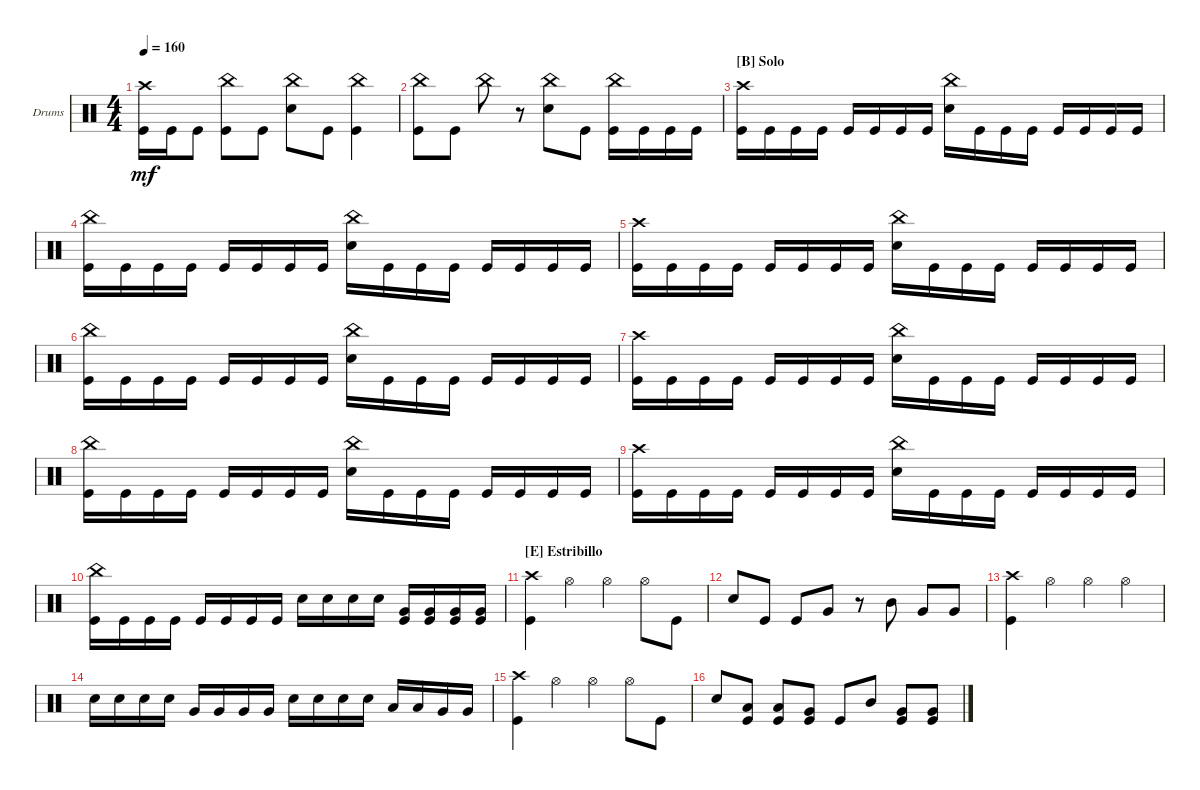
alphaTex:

\bracketExtendMode groupsimilarinstruments
\firstSystemTrackNameOrientation horizontal
\otherSystemsTrackNameOrientation horizontal
\track ("Nick Augusto" "Drums") {instrument percussion}
\staff {score}
\articulation defaults
\ts (4 4)
\tempo 160
\clef neutral
\ks c
("Kick (hit)" "Crash high (hit)").16{dy mf} "Kick (hit)".16 "Kick (hit)".8 ("Kick (hit)" "China (hit)").8 "Kick (hit)".8 ("Snare (hit) 2" "China (hit)").8 "Kick (hit)".8 ("Kick (hit)" "China (hit)").4 |
("Kick (hit)" "China (hit)").8 "Kick (hit)".8 "China (hit)".8 r.8 ("Snare (hit) 2" "China (hit)").8 "Kick (hit)".8 ("Kick (hit)" "China (hit)").16 "Kick (hit)".16 "Kick (hit)".16 "Kick (hit)".16 |
\section ("B" "Solo")
("Kick (hit)" "Crash high (hit)").16 "Kick (hit)".16 "Kick (hit)".16 "Kick (hit)".16 "Kick (hit)".16 "Kick (hit)".16 "Kick (hit)".16 "Kick (hit)".16 ("Snare (hit) 2" "China (hit)").16 "Kick (hit)".16 "Kick (hit)".16 "Kick (hit)".16 "Kick (hit)".16 "Kick (hit)".16 "Kick (hit)".16 "Kick (hit)".16 |
("Kick (hit)" "China (hit)").16 "Kick (hit)".16 "Kick (hit)".16 "Kick (hit)".16 "Kick (hit)".16 "Kick (hit)".16 "Kick (hit)".16 "Kick (hit)".16 ("Snare (hit) 2" "China (hit)").16 "Kick (hit)".16 "Kick (hit)".16 "Kick (hit)".16 "Kick (hit)".16 "Kick (hit)".16 "Kick (hit)".16 "Kick (hit)".16 |
("Kick (hit)" "Crash high (hit)").16 "Kick (hit)".16 "Kick (hit)".16 "Kick (hit)".16 "Kick (hit)".16 "Kick (hit)".16 "Kick (hit)".16 "Kick (hit)".16 ("Snare (hit) 2" "China (hit)").16 "Kick (hit)".16 "Kick (hit)".16 "Kick (hit)".16 "Kick (hit)".16 "Kick (hit)".16 "Kick (hit)".16 "Kick (hit)".16 |
("Kick (hit)" "China (hit)").16 "Kick (hit)".16 "Kick (hit)".16 "Kick (hit)".16 "Kick (hit)".16 "Kick (hit)".16 "Kick (hit)".16 "Kick (hit)".16 ("Snare (hit) 2" "China (hit)").16 "Kick (hit)".16 "Kick (hit)".16 "Kick (hit)".16 "Kick (hit)".16 "Kick (hit)".16 "Kick (hit)".16 "Kick (hit)".16 |
("Kick (hit)" "Crash high (hit)").16 "Kick (hit)".16 "Kick (hit)".16 "Kick (hit)".16 "Kick (hit)".16 "Kick (hit)".16 "Kick (hit)".16 "Kick (hit)".16 ("Snare (hit) 2" "China (hit)").16 "Kick (hit)".16 "Kick (hit)".16 "Kick (hit)".16 "Kick (hit)".16 "Kick (hit)".16 "Kick (hit)".16 "Kick (hit)".16 |
("Kick (hit)" "China (hit)").16 "Kick (hit)".16 "Kick (hit)".16 "Kick (hit)".16 "Kick (hit)".16 "Kick (hit)".16 "Kick (hit)".16 "Kick (hit)".16 ("Snare (hit) 2" "China (hit)").16 "Kick (hit)".16 "Kick (hit)".16 "Kick (hit)".16 "Kick (hit)".16 "Kick (hit)".16 "Kick (hit)".16 "Kick (hit)".16 |
("Kick (hit)" "Crash high (hit)").16 "Kick (hit)".16 "Kick (hit)".16 "Kick (hit)".16 "Kick (hit)".16 "Kick (hit)".16 "Kick (hit)".16 "Kick (hit)".16 ("Snare (hit) 2" "China (hit)").16 "Kick (hit)".16 "Kick (hit)".16 "Kick (hit)".16 "Kick (hit)".16 "Kick (hit)".16 "Kick (hit)".16 "Kick (hit)".16 |
("Kick (hit)" "China (hit)").16 "Kick (hit)".16 "Kick (hit)".16 "Kick (hit)".16 "Kick (hit)".16 "Kick (hit)".16 "Kick (hit)".16 "Kick (hit)".16 "Snare (hit) 2".16 "Snare (hit) 2".16 "Snare (hit) 2".16 "Snare (hit) 2".16 ("Kick (hit)" "Very Low Tom (hit)").16 ("Very Low Tom (hit)" "Kick (hit)").16 ("Very Low Tom (hit)" "Kick (hit)").16 ("Very Low Tom (hit)" "Kick (hit)").16 |
\section ("E" "Estribillo")
("Kick (hit)" "Crash high (hit)").4 "Hi-Hat (open)".4 "Hi-Hat (open)".4 "Hi-Hat (open)".8 "Kick (hit)".8 |
"Snare (hit) 2".8 "Kick (hit)".8 "Kick (hit)".8 "Very Low Tom (hit)".8 r.8 "Mid Tom (hit)".8 "Very Low Tom (hit)".8 "Very Low Tom (hit)".8 |
("Kick (hit)" "Crash high (hit)").4 "Hi-Hat (open)".4 "Hi-Hat (open)".4 "Hi-Hat (open)".4 |
"Snare (hit) 2".16 "Snare (hit) 2".16 "Snare (hit) 2".16 "Snare (hit) 2".16 "Very Low Tom (hit)".16 "Very Low Tom (hit)".16 "Very Low Tom (hit)".16 "Very Low Tom (hit)".16 "Snare (hit) 2".16 "Snare (hit) 2".16 "Snare (hit) 2".16 "Snare (hit) 2".16 "Low Tom (hit)".16 "Low Tom (hit)".16 "Very Low Tom (hit)".16 "Very Low Tom (hit)".16 |
("Kick (hit)" "Crash high (hit)").4 "Hi-Hat (open)".4 "Hi-Hat (open)".4 "Hi-Hat (open)".8 "Kick (hit)".8 |
"Snare (hit) 2".8 ("Kick (hit)" "Low Tom (hit)").8 ("Kick (hit)" "Low Tom (hit)").8 ("Very Low Tom (hit)" "Kick (hit)").8 "Kick (hit)".8 "Mid Tom (hit)".8 ("Very Low Tom (hit)" "Kick (hit)").8 ("Very Low Tom (hit)" "Kick (hit)").8
